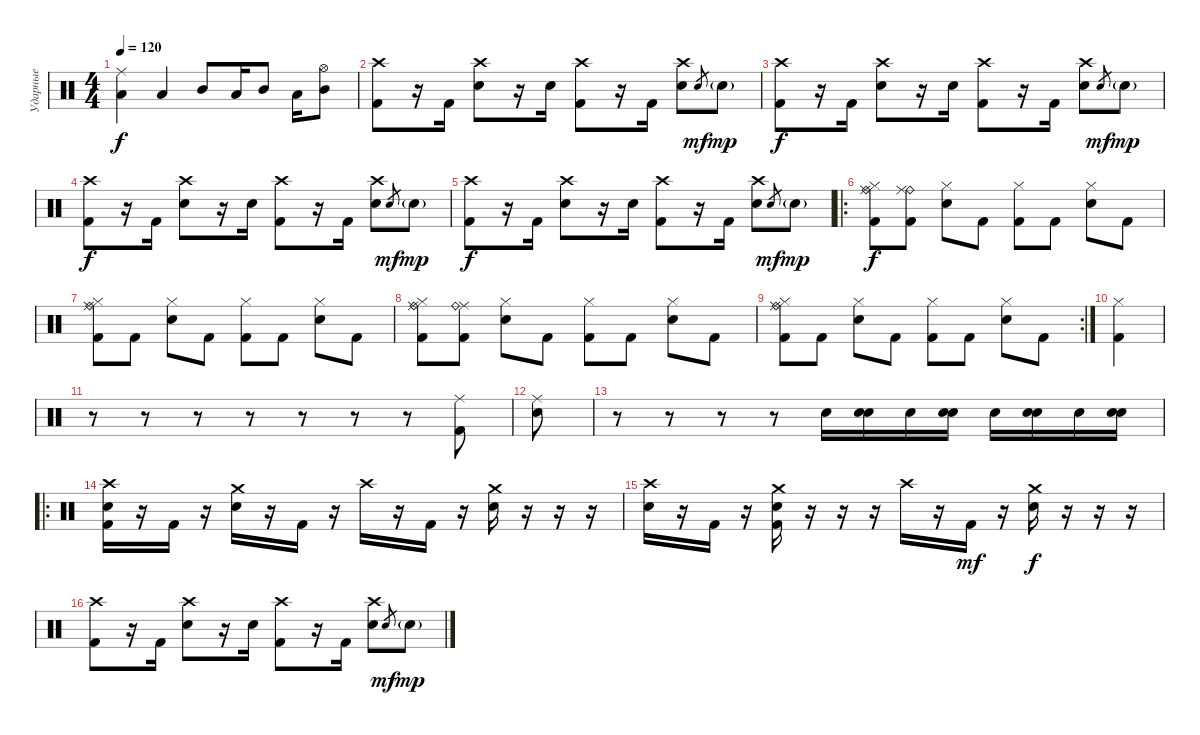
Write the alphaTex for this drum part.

\track ("Ударные" "Ударные") {instrument percussion}
\staff {score}
\articulation defaults
\ts (4 4)
\tempo 120
\clef neutral
\ks c
("Ride (middle)" "Low Tom (hit)").4{dy f} "Low Tom (hit)".4 "Mid Tom (hit)".8 "Low Tom (hit)".16 "Mid Tom (hit)".8 "Low Tom (hit)".16 ("Hi-Hat (open)" "Mid Tom (hit)").8 |
("Crash high (hit)" "Kick (hit) 2").8 r.16 "Kick (hit) 2".16 ("Crash high (hit)" "Electric Snare (hit)").8 r.16 "Electric Snare (hit)".16 ("Crash high (hit)" "Kick (hit) 2").8 r.16 "Kick (hit) 2".16 ("Crash high (hit)" "Electric Snare (hit)").8 "Electric Snare (hit)".8{gr dy mf} "Electric Snare (hit)"{g}.8{dy mp} |
("Crash high (hit)" "Kick (hit) 2").8{dy f} r.16 "Kick (hit) 2".16 ("Crash high (hit)" "Electric Snare (hit)").8 r.16 "Electric Snare (hit)".16 ("Crash high (hit)" "Kick (hit) 2").8 r.16 "Kick (hit) 2".16 ("Crash high (hit)" "Electric Snare (hit)").8 "Electric Snare (hit)".8{gr dy mf} "Electric Snare (hit)"{g}.8{dy mp} |
("Crash high (hit)" "Kick (hit) 2").8{dy f} r.16 "Kick (hit) 2".16 ("Crash high (hit)" "Electric Snare (hit)").8 r.16 "Electric Snare (hit)".16 ("Crash high (hit)" "Kick (hit) 2").8 r.16 "Kick (hit) 2".16 ("Crash high (hit)" "Electric Snare (hit)").8 "Electric Snare (hit)".8{gr dy mf} "Electric Snare (hit)"{g}.8{dy mp} |
("Crash high (hit)" "Kick (hit) 2").8{dy f} r.16 "Kick (hit) 2".16 ("Crash high (hit)" "Electric Snare (hit)").8 r.16 "Electric Snare (hit)".16 ("Crash high (hit)" "Kick (hit) 2").8 r.16 "Kick (hit) 2".16 ("Crash high (hit)" "Electric Snare (hit)").8 "Electric Snare (hit)".8{gr dy mf} "Electric Snare (hit)"{g}.8{dy mp} |
\ro
("Hi-Hat (closed)" "Ride (middle)" "Ride (bell)" "Kick (hit) 2").8{dy f volume 9} ("Ride (bell)" "Ride (middle)" "Kick (hit) 2").8 ("Hi-Hat (closed)" "Electric Snare (hit)").8 "Kick (hit) 2".8 ("Hi-Hat (closed)" "Kick (hit) 2").8 "Kick (hit) 2".8 ("Hi-Hat (closed)" "Electric Snare (hit)").8 "Kick (hit) 2".8 |
("Hi-Hat (closed)" "Ride (middle)" "Ride (bell)" "Kick (hit) 2").8 "Kick (hit) 2".8 ("Hi-Hat (closed)" "Electric Snare (hit)").8 "Kick (hit) 2".8 ("Hi-Hat (closed)" "Kick (hit) 2").8 "Kick (hit) 2".8 ("Hi-Hat (closed)" "Electric Snare (hit)").8 "Kick (hit) 2".8 |
("Hi-Hat (closed)" "Ride (middle)" "Ride (bell)" "Kick (hit) 2").8 ("Ride (middle)" "Ride (bell)" "Kick (hit) 2").8 ("Hi-Hat (closed)" "Electric Snare (hit)").8 "Kick (hit) 2".8 ("Hi-Hat (closed)" "Kick (hit) 2").8 "Kick (hit) 2".8 ("Hi-Hat (closed)" "Electric Snare (hit)").8 "Kick (hit) 2".8 |
\rc 2
("Hi-Hat (closed)" "Ride (middle)" "Ride (bell)" "Kick (hit) 2").8 "Kick (hit) 2".8 ("Hi-Hat (closed)" "Electric Snare (hit)").8 "Kick (hit) 2".8 ("Hi-Hat (closed)" "Kick (hit) 2").8 "Kick (hit) 2".8 ("Hi-Hat (closed)" "Electric Snare (hit)").8 "Kick (hit) 2".8 |
("Kick (hit) 2" "Hi-Hat (closed)").4 |
r.8 r.8 r.8 r.8 r.8 r.8 r.8 ("Ride (middle)" "Kick (hit) 2").8 |
("Ride (middle)" "Electric Snare (hit)").8 |
r.8 r.8 r.8 r.8 "Snare (hit) 2".16{volume 16} ("Electric Snare (hit)" "Snare (hit) 2").16 "Snare (hit) 2".16 ("Electric Snare (hit)" "Snare (hit) 2").16 "Snare (hit) 2".16 ("Electric Snare (hit)" "Snare (hit) 2").16 "Snare (hit) 2".16 ("Electric Snare (hit)" "Snare (hit) 2").16 |
\ro
("Crash high (hit)" "Electric Snare (hit)" "Kick (hit) 2").16{volume 13} r.16 "Kick (hit) 2".16 r.16 ("Crash medium (hit)" "Electric Snare (hit)").16 r.16 "Kick (hit) 2".16 r.16 "Crash high (hit)".16 r.16 "Kick (hit) 2".16 r.16 ("Crash medium (hit)" "Snare (hit) 2").16 r.16 r.16 r.16 |
("Crash high (hit)" "Electric Snare (hit)").16 r.16 "Kick (hit) 2".16 r.16 ("Crash medium (hit)" "Electric Snare (hit)" "Kick (hit) 2").16 r.16 r.16 r.16 "Crash high (hit)".16 r.16 "Kick (hit) 2".16{dy mf} r.16 ("Crash medium (hit)" "Snare (hit) 2").16{dy f} r.16 r.16 r.16 |
("Crash high (hit)" "Kick (hit) 2").8 r.16 "Kick (hit) 2".16 ("Crash high (hit)" "Electric Snare (hit)").8 r.16 "Electric Snare (hit)".16 ("Crash high (hit)" "Kick (hit) 2").8 r.16 "Kick (hit) 2".16 ("Crash high (hit)" "Electric Snare (hit)").8 "Electric Snare (hit)".8{gr dy mf} "Electric Snare (hit)"{g}.8{dy mp}
